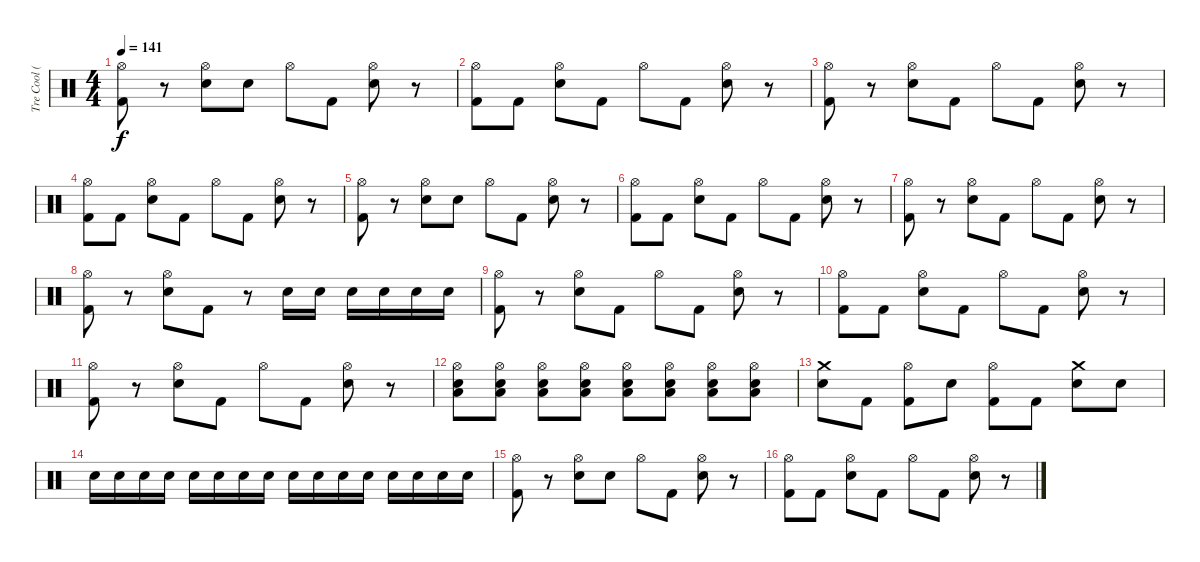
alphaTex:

\track ("Tre Cool (Drums)" "Tre Cool (") {instrument percussion}
\staff {score}
\articulation defaults
\ts (4 4)
\tempo 141
\clef neutral
\ks c
("Kick (hit) 2" "Hi-Hat (open)").8{dy f} r.8 ("Electric Snare (hit)" "Hi-Hat (open)").8 "Electric Snare (hit)".8 "Hi-Hat (open)".8 "Kick (hit) 2".8 ("Electric Snare (hit)" "Hi-Hat (open)").8 r.8 |
("Kick (hit) 2" "Hi-Hat (open)").8 "Kick (hit) 2".8 ("Electric Snare (hit)" "Hi-Hat (open)").8 "Kick (hit) 2".8 "Hi-Hat (open)".8 "Kick (hit) 2".8 ("Electric Snare (hit)" "Hi-Hat (open)").8 r.8 |
("Kick (hit) 2" "Hi-Hat (open)").8 r.8 ("Electric Snare (hit)" "Hi-Hat (open)").8 "Kick (hit) 2".8 "Hi-Hat (open)".8 "Kick (hit) 2".8 ("Electric Snare (hit)" "Hi-Hat (open)").8 r.8 |
("Kick (hit) 2" "Hi-Hat (open)").8 "Kick (hit) 2".8 ("Electric Snare (hit)" "Hi-Hat (open)").8 "Kick (hit) 2".8 "Hi-Hat (open)".8 "Kick (hit) 2".8 ("Electric Snare (hit)" "Hi-Hat (open)").8 r.8 |
("Kick (hit) 2" "Hi-Hat (open)").8 r.8 ("Electric Snare (hit)" "Hi-Hat (open)").8 "Electric Snare (hit)".8 "Hi-Hat (open)".8 "Kick (hit) 2".8 ("Electric Snare (hit)" "Hi-Hat (open)").8 r.8 |
("Kick (hit) 2" "Hi-Hat (open)").8 "Kick (hit) 2".8 ("Electric Snare (hit)" "Hi-Hat (open)").8 "Kick (hit) 2".8 "Hi-Hat (open)".8 "Kick (hit) 2".8 ("Electric Snare (hit)" "Hi-Hat (open)").8 r.8 |
("Kick (hit) 2" "Hi-Hat (open)").8 r.8 ("Electric Snare (hit)" "Hi-Hat (open)").8 "Kick (hit) 2".8 "Hi-Hat (open)".8 "Kick (hit) 2".8 ("Electric Snare (hit)" "Hi-Hat (open)").8 r.8 |
("Kick (hit) 2" "Hi-Hat (open)").8 r.8 ("Electric Snare (hit)" "Hi-Hat (open)").8 "Kick (hit) 2".8 r.8 "Electric Snare (hit)".16 "Electric Snare (hit)".16 "Electric Snare (hit)".16 "Electric Snare (hit)".16 "Electric Snare (hit)".16 "Electric Snare (hit)".16 |
("Kick (hit) 2" "Hi-Hat (open)").8 r.8 ("Electric Snare (hit)" "Hi-Hat (open)").8 "Kick (hit) 2".8 "Hi-Hat (open)".8 "Kick (hit) 2".8 ("Electric Snare (hit)" "Hi-Hat (open)").8 r.8 |
("Kick (hit) 2" "Hi-Hat (open)").8 "Kick (hit) 2".8 ("Electric Snare (hit)" "Hi-Hat (open)").8 "Kick (hit) 2".8 "Hi-Hat (open)".8 "Kick (hit) 2".8 ("Electric Snare (hit)" "Hi-Hat (open)").8 r.8 |
("Kick (hit) 2" "Hi-Hat (open)").8 r.8 ("Electric Snare (hit)" "Hi-Hat (open)").8 "Kick (hit) 2".8 "Hi-Hat (open)".8 "Kick (hit) 2".8 ("Electric Snare (hit)" "Hi-Hat (open)").8 r.8 |
("Low Floor Tom (hit)" "Electric Snare (hit)" "Hi-Hat (open)").8{volume 8} ("Low Floor Tom (hit)" "Electric Snare (hit)" "Hi-Hat (open)").8 ("Low Floor Tom (hit)" "Electric Snare (hit)" "Hi-Hat (open)").8{volume 10} ("Low Floor Tom (hit)" "Electric Snare (hit)" "Hi-Hat (open)").8 ("Low Floor Tom (hit)" "Electric Snare (hit)" "Hi-Hat (open)").8{volume 13} ("Low Floor Tom (hit)" "Electric Snare (hit)" "Hi-Hat (open)").8 ("Low Floor Tom (hit)" "Electric Snare (hit)" "Hi-Hat (open)").8{volume 16} ("Low Floor Tom (hit)" "Electric Snare (hit)" "Hi-Hat (open)").8 |
("Electric Snare (hit)" "Crash medium (hit)").8 "Kick (hit) 2".8 ("Kick (hit) 2" "Hi-Hat (open)").8 "Electric Snare (hit)".8 ("Kick (hit) 2" "Hi-Hat (open)").8 "Kick (hit) 2".8 ("Electric Snare (hit)" "Crash medium (hit)").8 "Electric Snare (hit)".8 |
"Electric Snare (hit)".16 "Electric Snare (hit)".16 "Electric Snare (hit)".16 "Electric Snare (hit)".16 "Electric Snare (hit)".16 "Electric Snare (hit)".16 "Electric Snare (hit)".16 "Electric Snare (hit)".16 "Electric Snare (hit)".16 "Electric Snare (hit)".16 "Electric Snare (hit)".16 "Electric Snare (hit)".16 "Electric Snare (hit)".16 "Electric Snare (hit)".16 "Electric Snare (hit)".16 "Electric Snare (hit)".16 |
("Kick (hit) 2" "Hi-Hat (open)").8 r.8 ("Electric Snare (hit)" "Hi-Hat (open)").8 "Electric Snare (hit)".8 "Hi-Hat (open)".8 "Kick (hit) 2".8 ("Electric Snare (hit)" "Hi-Hat (open)").8 r.8 |
("Kick (hit) 2" "Hi-Hat (open)").8 "Kick (hit) 2".8 ("Electric Snare (hit)" "Hi-Hat (open)").8 "Kick (hit) 2".8 "Hi-Hat (open)".8 "Kick (hit) 2".8 ("Electric Snare (hit)" "Hi-Hat (open)").8 r.8
